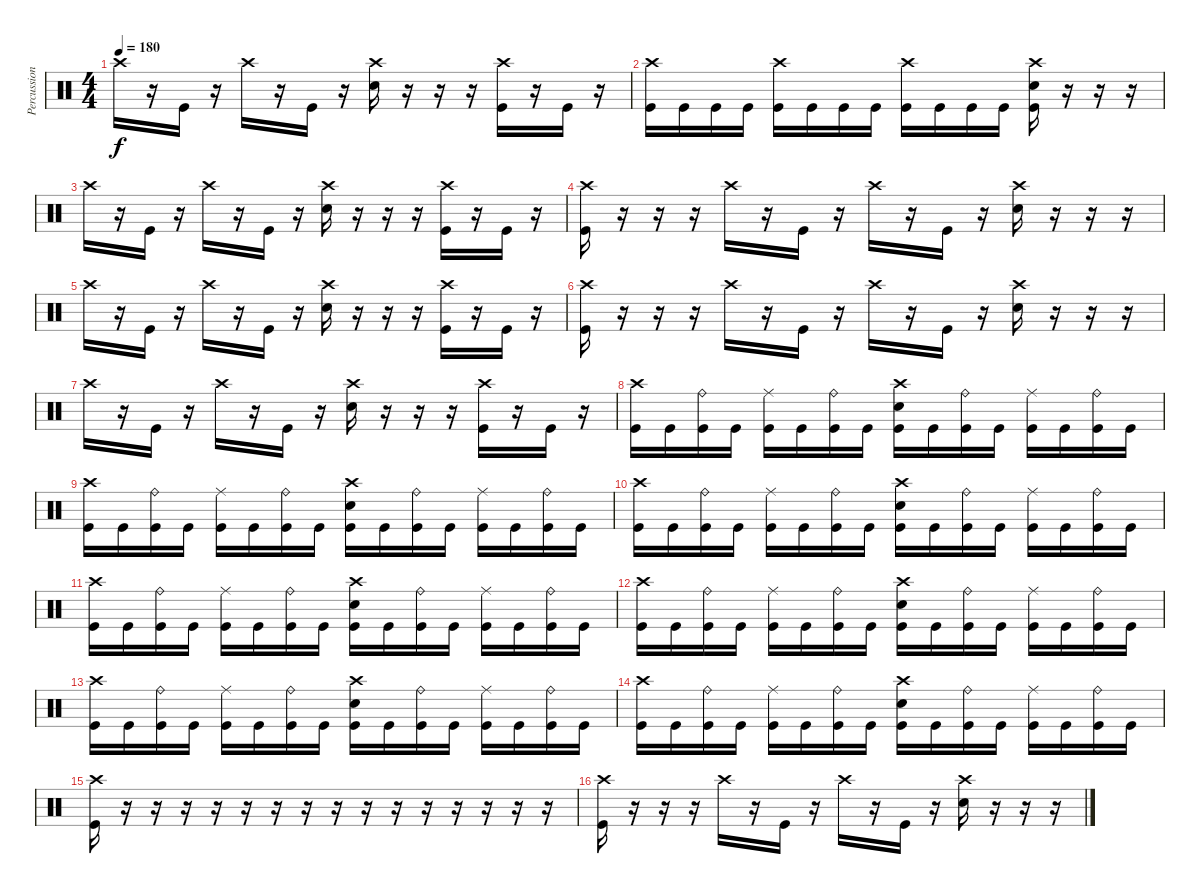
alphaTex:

\track ("Percussion" "Percussion") {instrument percussion}
\staff {score}
\articulation defaults
\ts (4 4)
\tempo 180
\clef neutral
\ks c "Crash high (hit)".16{dy f}
r.16 "Kick (hit)".16 r.16 "Crash high (hit)".16 r.16 "Kick (hit)".16 r.16 ("Crash high (hit)" "Electric Snare (hit)").16 r.16 r.16 r.16 ("Crash high (hit)" "Kick (hit)").16 r.16 "Kick (hit)".16 r.16 |
("Crash high (hit)" "Kick (hit)").16 "Kick (hit)".16 "Kick (hit)".16 "Kick (hit)".16 ("Crash high (hit)" "Kick (hit)").16 "Kick (hit)".16 "Kick (hit)".16 "Kick (hit)".16 ("Crash high (hit)" "Kick (hit)").16 "Kick (hit)".16 "Kick (hit)".16 "Kick (hit)".16 ("Crash high (hit)" "Electric Snare (hit)" "Kick (hit)").16 r.16 r.16 r.16 |
"Crash high (hit)".16 r.16 "Kick (hit)".16 r.16 "Crash high (hit)".16 r.16 "Kick (hit)".16 r.16 ("Crash high (hit)" "Electric Snare (hit)").16 r.16 r.16 r.16 ("Crash high (hit)" "Kick (hit)").16 r.16 "Kick (hit)".16 r.16 |
("Crash high (hit)" "Kick (hit)").16 r.16 r.16 r.16 "Crash high (hit)".16 r.16 "Kick (hit)".16 r.16 "Crash high (hit)".16 r.16 "Kick (hit)".16 r.16 ("Crash high (hit)" "Electric Snare (hit)").16 r.16 r.16 r.16 |
"Crash high (hit)".16 r.16 "Kick (hit)".16 r.16 "Crash high (hit)".16 r.16 "Kick (hit)".16 r.16 ("Crash high (hit)" "Electric Snare (hit)").16 r.16 r.16 r.16 ("Crash high (hit)" "Kick (hit)").16 r.16 "Kick (hit)".16 r.16 |
("Crash high (hit)" "Kick (hit)").16 r.16 r.16 r.16 "Crash high (hit)".16 r.16 "Kick (hit)".16 r.16 "Crash high (hit)".16 r.16 "Kick (hit)".16 r.16 ("Crash high (hit)" "Electric Snare (hit)").16 r.16 r.16 r.16 |
"Crash high (hit)".16 r.16 "Kick (hit)".16 r.16 "Crash high (hit)".16 r.16 "Kick (hit)".16 r.16 ("Crash high (hit)" "Electric Snare (hit)").16 r.16 r.16 r.16 ("Crash high (hit)" "Kick (hit)").16 r.16 "Kick (hit)".16 r.16 |
("Crash high (hit)" "Kick (hit)").16 "Kick (hit)".16 ("Ride (bell)" "Kick (hit)").16 "Kick (hit)".16 ("Ride (middle)" "Kick (hit)").16 "Kick (hit)".16 ("Ride (bell)" "Kick (hit)").16 "Kick (hit)".16 ("Electric Snare (hit)" "Crash high (hit)" "Kick (hit)").16 "Kick (hit)".16 ("Ride (bell)" "Kick (hit)").16 "Kick (hit)".16 ("Ride (middle)" "Kick (hit)").16 "Kick (hit)".16 ("Ride (bell)" "Kick (hit)").16 "Kick (hit)".16 |
("Crash high (hit)" "Kick (hit)").16 "Kick (hit)".16 ("Ride (bell)" "Kick (hit)").16 "Kick (hit)".16 ("Ride (middle)" "Kick (hit)").16 "Kick (hit)".16 ("Ride (bell)" "Kick (hit)").16 "Kick (hit)".16 ("Electric Snare (hit)" "Crash high (hit)" "Kick (hit)").16 "Kick (hit)".16 ("Ride (bell)" "Kick (hit)").16 "Kick (hit)".16 ("Ride (middle)" "Kick (hit)").16 "Kick (hit)".16 ("Ride (bell)" "Kick (hit)").16 "Kick (hit)".16 |
("Crash high (hit)" "Kick (hit)").16 "Kick (hit)".16 ("Ride (bell)" "Kick (hit)").16 "Kick (hit)".16 ("Ride (middle)" "Kick (hit)").16 "Kick (hit)".16 ("Ride (bell)" "Kick (hit)").16 "Kick (hit)".16 ("Electric Snare (hit)" "Crash high (hit)" "Kick (hit)").16 "Kick (hit)".16 ("Ride (bell)" "Kick (hit)").16 "Kick (hit)".16 ("Ride (middle)" "Kick (hit)").16 "Kick (hit)".16 ("Ride (bell)" "Kick (hit)").16 "Kick (hit)".16 |
("Crash high (hit)" "Kick (hit)").16 "Kick (hit)".16 ("Ride (bell)" "Kick (hit)").16 "Kick (hit)".16 ("Ride (middle)" "Kick (hit)").16 "Kick (hit)".16 ("Ride (bell)" "Kick (hit)").16 "Kick (hit)".16 ("Electric Snare (hit)" "Crash high (hit)" "Kick (hit)").16 "Kick (hit)".16 ("Ride (bell)" "Kick (hit)").16 "Kick (hit)".16 ("Ride (middle)" "Kick (hit)").16 "Kick (hit)".16 ("Ride (bell)" "Kick (hit)").16 "Kick (hit)".16 |
("Crash high (hit)" "Kick (hit)").16 "Kick (hit)".16 ("Ride (bell)" "Kick (hit)").16 "Kick (hit)".16 ("Ride (middle)" "Kick (hit)").16 "Kick (hit)".16 ("Ride (bell)" "Kick (hit)").16 "Kick (hit)".16 ("Electric Snare (hit)" "Crash high (hit)" "Kick (hit)").16 "Kick (hit)".16 ("Ride (bell)" "Kick (hit)").16 "Kick (hit)".16 ("Ride (middle)" "Kick (hit)").16 "Kick (hit)".16 ("Ride (bell)" "Kick (hit)").16 "Kick (hit)".16 |
("Crash high (hit)" "Kick (hit)").16 "Kick (hit)".16 ("Ride (bell)" "Kick (hit)").16 "Kick (hit)".16 ("Ride (middle)" "Kick (hit)").16 "Kick (hit)".16 ("Ride (bell)" "Kick (hit)").16 "Kick (hit)".16 ("Electric Snare (hit)" "Crash high (hit)" "Kick (hit)").16 "Kick (hit)".16 ("Ride (bell)" "Kick (hit)").16 "Kick (hit)".16 ("Ride (middle)" "Kick (hit)").16 "Kick (hit)".16 ("Ride (bell)" "Kick (hit)").16 "Kick (hit)".16 |
("Crash high (hit)" "Kick (hit)").16 "Kick (hit)".16 ("Ride (bell)" "Kick (hit)").16 "Kick (hit)".16 ("Ride (middle)" "Kick (hit)").16 "Kick (hit)".16 ("Ride (bell)" "Kick (hit)").16 "Kick (hit)".16 ("Electric Snare (hit)" "Crash high (hit)" "Kick (hit)").16 "Kick (hit)".16 ("Ride (bell)" "Kick (hit)").16 "Kick (hit)".16 ("Ride (middle)" "Kick (hit)").16 "Kick (hit)".16 ("Ride (bell)" "Kick (hit)").16 "Kick (hit)".16 |
("Crash high (hit)" "Kick (hit)").16 r.16 r.16 r.16 r.16 r.16 r.16 r.16 r.16 r.16 r.16 r.16 r.16 r.16 r.16 r.16 |
("Crash high (hit)" "Kick (hit)").16 r.16 r.16 r.16 "Crash high (hit)".16 r.16 "Kick (hit)".16 r.16 "Crash high (hit)".16 r.16 "Kick (hit)".16 r.16 ("Crash high (hit)" "Electric Snare (hit)").16 r.16 r.16 r.16
